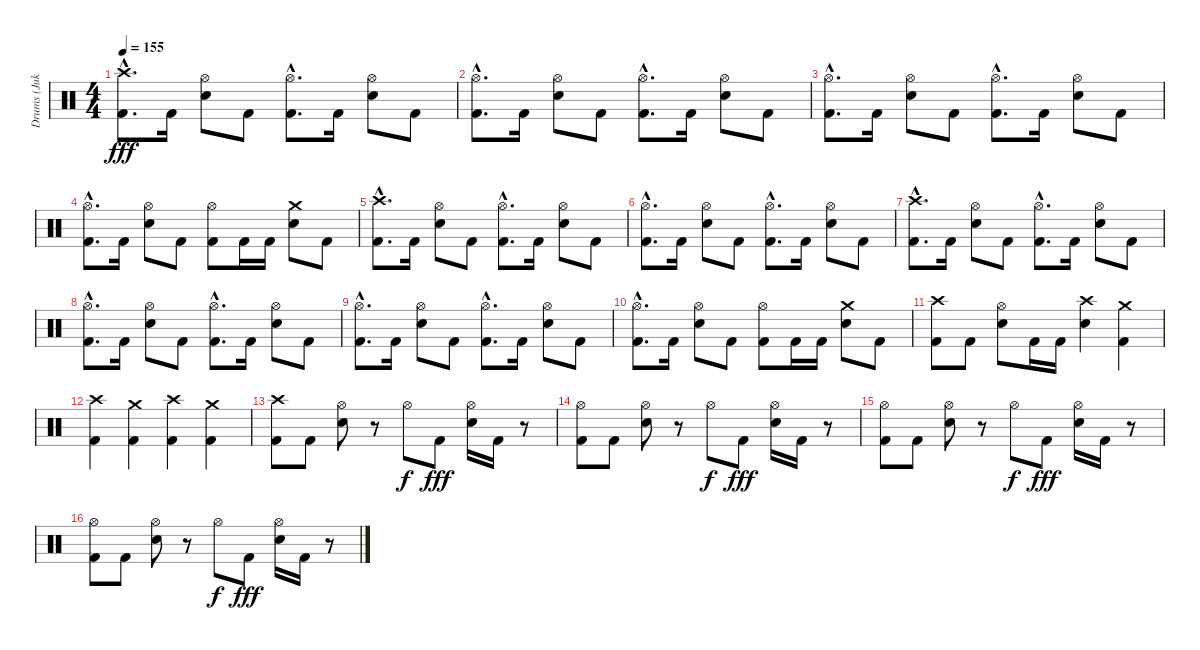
\track ("Drums (Jukka)" "Drums (Juk") {instrument percussion}
\staff {score}
\articulation defaults
\ts (4 4)
\tempo 155
\clef neutral
\ks c
("Kick (hit) 2"{hac} "Crash high (hit)"{hac}).8{d dy fff} "Kick (hit) 2".16 ("Snare (hit) 2" "Hi-Hat (open)").8 "Kick (hit) 2".8 ("Kick (hit) 2"{hac} "Hi-Hat (open)"{hac}).8{d} "Kick (hit) 2".16 ("Snare (hit) 2" "Hi-Hat (open)").8 "Kick (hit) 2".8 |
("Kick (hit) 2"{hac} "Hi-Hat (open)"{hac}).8{d} "Kick (hit) 2".16 ("Snare (hit) 2" "Hi-Hat (open)").8 "Kick (hit) 2".8 ("Kick (hit) 2"{hac} "Hi-Hat (open)"{hac}).8{d} "Kick (hit) 2".16 ("Snare (hit) 2" "Hi-Hat (open)").8 "Kick (hit) 2".8 |
("Kick (hit) 2"{hac} "Hi-Hat (open)"{hac}).8{d} "Kick (hit) 2".16 ("Snare (hit) 2" "Hi-Hat (open)").8 "Kick (hit) 2".8 ("Kick (hit) 2"{hac} "Hi-Hat (open)"{hac}).8{d} "Kick (hit) 2".16 ("Snare (hit) 2" "Hi-Hat (open)").8 "Kick (hit) 2".8 |
("Kick (hit) 2"{hac} "Hi-Hat (open)"{hac}).8{d} "Kick (hit) 2".16 ("Snare (hit) 2" "Hi-Hat (open)").8 "Kick (hit) 2".8 ("Kick (hit) 2" "Hi-Hat (open)").8 "Kick (hit) 2".16 "Kick (hit) 2".16 ("Snare (hit) 2" "Crash medium (hit)").8 "Kick (hit) 2".8 |
("Kick (hit) 2"{hac} "Crash high (hit)"{hac}).8{d} "Kick (hit) 2".16 ("Snare (hit) 2" "Hi-Hat (open)").8 "Kick (hit) 2".8 ("Kick (hit) 2"{hac} "Hi-Hat (open)"{hac}).8{d} "Kick (hit) 2".16 ("Snare (hit) 2" "Hi-Hat (open)").8 "Kick (hit) 2".8 |
("Kick (hit) 2"{hac} "Hi-Hat (open)"{hac}).8{d} "Kick (hit) 2".16 ("Snare (hit) 2" "Hi-Hat (open)").8 "Kick (hit) 2".8 ("Kick (hit) 2"{hac} "Hi-Hat (open)"{hac}).8{d} "Kick (hit) 2".16 ("Snare (hit) 2" "Hi-Hat (open)").8 "Kick (hit) 2".8 |
("Kick (hit) 2"{hac} "Crash high (hit)"{hac}).8{d} "Kick (hit) 2".16 ("Snare (hit) 2" "Hi-Hat (open)").8 "Kick (hit) 2".8 ("Kick (hit) 2"{hac} "Hi-Hat (open)"{hac}).8{d} "Kick (hit) 2".16 ("Snare (hit) 2" "Hi-Hat (open)").8 "Kick (hit) 2".8 |
("Kick (hit) 2"{hac} "Hi-Hat (open)"{hac}).8{d} "Kick (hit) 2".16 ("Snare (hit) 2" "Hi-Hat (open)").8 "Kick (hit) 2".8 ("Kick (hit) 2"{hac} "Hi-Hat (open)"{hac}).8{d} "Kick (hit) 2".16 ("Snare (hit) 2" "Hi-Hat (open)").8 "Kick (hit) 2".8 |
("Kick (hit) 2"{hac} "Hi-Hat (open)"{hac}).8{d} "Kick (hit) 2".16 ("Snare (hit) 2" "Hi-Hat (open)").8 "Kick (hit) 2".8 ("Kick (hit) 2"{hac} "Hi-Hat (open)"{hac}).8{d} "Kick (hit) 2".16 ("Snare (hit) 2" "Hi-Hat (open)").8 "Kick (hit) 2".8 |
("Kick (hit) 2"{hac} "Hi-Hat (open)"{hac}).8{d} "Kick (hit) 2".16 ("Snare (hit) 2" "Hi-Hat (open)").8 "Kick (hit) 2".8 ("Kick (hit) 2" "Hi-Hat (open)").8 "Kick (hit) 2".16 "Kick (hit) 2".16 ("Snare (hit) 2" "Crash medium (hit)").8 "Kick (hit) 2".8 |
("Kick (hit) 2" "Crash high (hit)").8 "Kick (hit) 2".8 ("Snare (hit) 2" "Hi-Hat (open)").8 "Kick (hit) 2".16 "Kick (hit) 2".16 ("Snare (hit) 2" "Crash high (hit)").4 ("Kick (hit) 2" "Crash medium (hit)").4 |
("Kick (hit) 2" "Crash high (hit)").4 ("Kick (hit) 2" "Crash medium (hit)").4 ("Kick (hit) 2" "Crash high (hit)").4 ("Kick (hit) 2" "Crash medium (hit)").4 |
("Kick (hit) 2" "Crash high (hit)").8 "Kick (hit) 2".8 ("Snare (hit) 2" "Hi-Hat (open)").8 r.8 "Hi-Hat (open)".8{dy f} "Kick (hit) 2".8{dy fff} ("Snare (hit) 2" "Hi-Hat (open)").16 "Kick (hit) 2".16 r.8 |
("Kick (hit) 2" "Hi-Hat (open)").8 "Kick (hit) 2".8 ("Snare (hit) 2" "Hi-Hat (open)").8 r.8 "Hi-Hat (open)".8{dy f} "Kick (hit) 2".8{dy fff} ("Snare (hit) 2" "Hi-Hat (open)").16 "Kick (hit) 2".16 r.8 |
("Kick (hit) 2" "Hi-Hat (open)").8 "Kick (hit) 2".8 ("Snare (hit) 2" "Hi-Hat (open)").8 r.8 "Hi-Hat (open)".8{dy f} "Kick (hit) 2".8{dy fff} ("Snare (hit) 2" "Hi-Hat (open)").16 "Kick (hit) 2".16 r.8 |
("Kick (hit) 2" "Hi-Hat (open)").8 "Kick (hit) 2".8 ("Snare (hit) 2" "Hi-Hat (open)").8 r.8 "Hi-Hat (open)".8{dy f} "Kick (hit) 2".8{dy fff} ("Snare (hit) 2" "Hi-Hat (open)").16 "Kick (hit) 2".16 r.8
